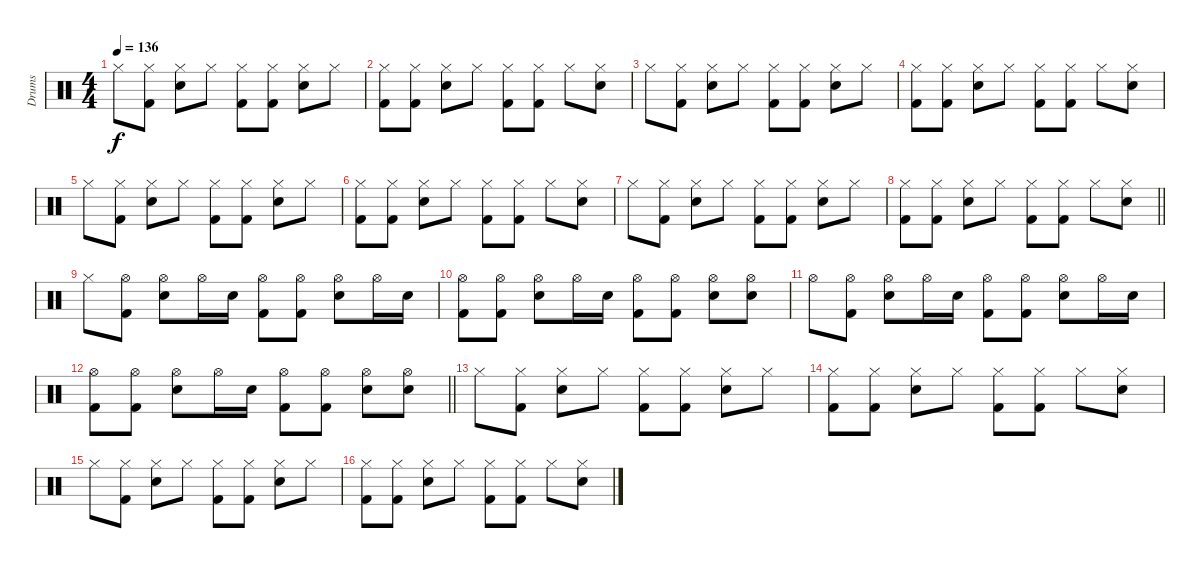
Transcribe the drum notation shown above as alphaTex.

\track ("Drums" "Drums") {instrument percussion}
\staff {score}
\articulation defaults
\ts (4 4)
\section ("" "")
\tempo 136
\clef neutral
\ks c "Hi-Hat (closed)".8{dy f}
("Hi-Hat (closed)" "Kick (hit) 2").8 ("Hi-Hat (closed)" "Snare (hit) 2").8 "Hi-Hat (closed)".8 ("Hi-Hat (closed)" "Kick (hit) 2").8 ("Hi-Hat (closed)" "Kick (hit) 2").8 ("Hi-Hat (closed)" "Snare (hit) 2").8 "Hi-Hat (closed)".8 |
("Hi-Hat (closed)" "Kick (hit) 2").8 ("Hi-Hat (closed)" "Kick (hit) 2").8 ("Hi-Hat (closed)" "Snare (hit) 2").8 "Hi-Hat (closed)".8 ("Hi-Hat (closed)" "Kick (hit) 2").8 ("Hi-Hat (closed)" "Kick (hit) 2").8 "Hi-Hat (closed)".8 ("Hi-Hat (closed)" "Snare (hit) 2").8 |
"Hi-Hat (closed)".8 ("Hi-Hat (closed)" "Kick (hit) 2").8 ("Hi-Hat (closed)" "Snare (hit) 2").8 "Hi-Hat (closed)".8 ("Hi-Hat (closed)" "Kick (hit) 2").8 ("Hi-Hat (closed)" "Kick (hit) 2").8 ("Hi-Hat (closed)" "Snare (hit) 2").8 "Hi-Hat (closed)".8 |
("Hi-Hat (closed)" "Kick (hit) 2").8 ("Hi-Hat (closed)" "Kick (hit) 2").8 ("Hi-Hat (closed)" "Snare (hit) 2").8 "Hi-Hat (closed)".8 ("Hi-Hat (closed)" "Kick (hit) 2").8 ("Hi-Hat (closed)" "Kick (hit) 2").8 "Hi-Hat (closed)".8 ("Hi-Hat (closed)" "Snare (hit) 2").8 |
"Hi-Hat (closed)".8 ("Hi-Hat (closed)" "Kick (hit) 2").8 ("Hi-Hat (closed)" "Snare (hit) 2").8 "Hi-Hat (closed)".8 ("Hi-Hat (closed)" "Kick (hit) 2").8 ("Hi-Hat (closed)" "Kick (hit) 2").8 ("Hi-Hat (closed)" "Snare (hit) 2").8 "Hi-Hat (closed)".8 |
("Hi-Hat (closed)" "Kick (hit) 2").8 ("Hi-Hat (closed)" "Kick (hit) 2").8 ("Hi-Hat (closed)" "Snare (hit) 2").8 "Hi-Hat (closed)".8 ("Hi-Hat (closed)" "Kick (hit) 2").8 ("Hi-Hat (closed)" "Kick (hit) 2").8 "Hi-Hat (closed)".8 ("Hi-Hat (closed)" "Snare (hit) 2").8 |
"Hi-Hat (closed)".8 ("Hi-Hat (closed)" "Kick (hit) 2").8 ("Hi-Hat (closed)" "Snare (hit) 2").8 "Hi-Hat (closed)".8 ("Hi-Hat (closed)" "Kick (hit) 2").8 ("Hi-Hat (closed)" "Kick (hit) 2").8 ("Hi-Hat (closed)" "Snare (hit) 2").8 "Hi-Hat (closed)".8 |
\barLineRight lightlight
("Hi-Hat (closed)" "Kick (hit) 2").8 ("Hi-Hat (closed)" "Kick (hit) 2").8 ("Hi-Hat (closed)" "Snare (hit) 2").8 "Hi-Hat (closed)".8 ("Hi-Hat (closed)" "Kick (hit) 2").8 ("Hi-Hat (closed)" "Kick (hit) 2").8 "Hi-Hat (closed)".8 ("Hi-Hat (closed)" "Snare (hit) 2").8 |
\section ("" "")
"Hi-Hat (closed)".8 ("Hi-Hat (open)" "Kick (hit) 2").8 ("Hi-Hat (open)" "Snare (hit) 2").8 "Hi-Hat (open)".16 "Snare (hit) 2".16 ("Hi-Hat (open)" "Kick (hit) 2").8 ("Hi-Hat (open)" "Kick (hit) 2").8 ("Hi-Hat (open)" "Snare (hit) 2").8 "Hi-Hat (open)".16 "Snare (hit) 2".16 |
("Hi-Hat (open)" "Kick (hit) 2").8 ("Hi-Hat (open)" "Kick (hit) 2").8 ("Hi-Hat (open)" "Snare (hit) 2").8 "Hi-Hat (open)".16 "Snare (hit) 2".16 ("Hi-Hat (open)" "Kick (hit) 2").8 ("Hi-Hat (open)" "Kick (hit) 2").8 ("Hi-Hat (open)" "Snare (hit) 2").8 ("Hi-Hat (open)" "Snare (hit) 2").8 |
"Hi-Hat (open)".8 ("Hi-Hat (open)" "Kick (hit) 2").8 ("Hi-Hat (open)" "Snare (hit) 2").8 "Hi-Hat (open)".16 "Snare (hit) 2".16 ("Hi-Hat (open)" "Kick (hit) 2").8 ("Hi-Hat (open)" "Kick (hit) 2").8 ("Hi-Hat (open)" "Snare (hit) 2").8 "Hi-Hat (open)".16 "Snare (hit) 2".16 |
\barLineRight lightlight
("Hi-Hat (open)" "Kick (hit) 2").8 ("Hi-Hat (open)" "Kick (hit) 2").8 ("Hi-Hat (open)" "Snare (hit) 2").8 "Hi-Hat (open)".16 "Snare (hit) 2".16 ("Hi-Hat (open)" "Kick (hit) 2").8 ("Hi-Hat (open)" "Kick (hit) 2").8 ("Hi-Hat (open)" "Snare (hit) 2").8 ("Hi-Hat (open)" "Snare (hit) 2").8 |
\section ("" "")
"Hi-Hat (closed)".8 ("Hi-Hat (closed)" "Kick (hit) 2").8 ("Hi-Hat (closed)" "Snare (hit) 2").8 "Hi-Hat (closed)".8 ("Hi-Hat (closed)" "Kick (hit) 2").8 ("Hi-Hat (closed)" "Kick (hit) 2").8 ("Hi-Hat (closed)" "Snare (hit) 2").8 "Hi-Hat (closed)".8 |
("Hi-Hat (closed)" "Kick (hit) 2").8 ("Hi-Hat (closed)" "Kick (hit) 2").8 ("Hi-Hat (closed)" "Snare (hit) 2").8 "Hi-Hat (closed)".8 ("Hi-Hat (closed)" "Kick (hit) 2").8 ("Hi-Hat (closed)" "Kick (hit) 2").8 "Hi-Hat (closed)".8 ("Hi-Hat (closed)" "Snare (hit) 2").8 |
"Hi-Hat (closed)".8 ("Hi-Hat (closed)" "Kick (hit) 2").8 ("Hi-Hat (closed)" "Snare (hit) 2").8 "Hi-Hat (closed)".8 ("Hi-Hat (closed)" "Kick (hit) 2").8 ("Hi-Hat (closed)" "Kick (hit) 2").8 ("Hi-Hat (closed)" "Snare (hit) 2").8 "Hi-Hat (closed)".8 |
("Hi-Hat (closed)" "Kick (hit) 2").8 ("Hi-Hat (closed)" "Kick (hit) 2").8 ("Hi-Hat (closed)" "Snare (hit) 2").8 "Hi-Hat (closed)".8 ("Hi-Hat (closed)" "Kick (hit) 2").8 ("Hi-Hat (closed)" "Kick (hit) 2").8 "Hi-Hat (closed)".8 ("Hi-Hat (closed)" "Snare (hit) 2").8
